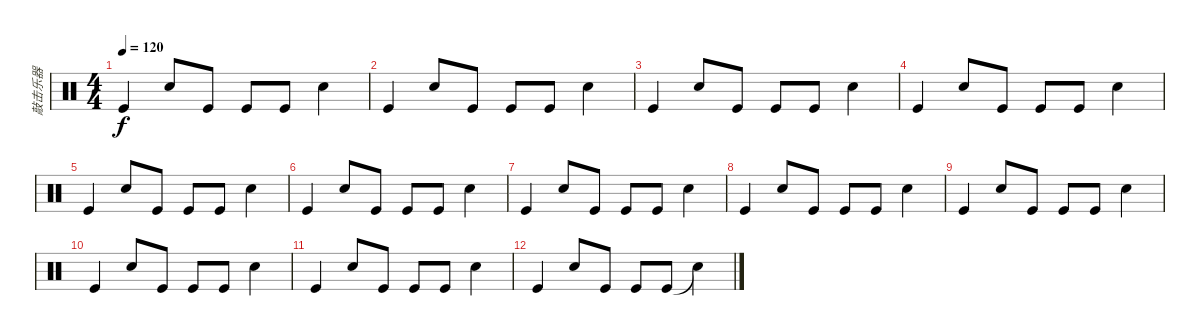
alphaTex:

\track ("敲击乐器" "敲击乐器") {instrument percussion}
\staff {score}
\articulation defaults
\ts (4 4)
\tempo 120
\clef neutral
\ks c "Kick (hit)".4{dy f} "Snare (hit) 2".8 "Kick (hit)".8 "Kick (hit)".8 "Kick (hit)".8 "Snare (hit) 2".4
|
"Kick (hit)".4 "Snare (hit) 2".8 "Kick (hit)".8 "Kick (hit)".8 "Kick (hit)".8 "Snare (hit) 2".4 |
"Kick (hit)".4 "Snare (hit) 2".8 "Kick (hit)".8 "Kick (hit)".8 "Kick (hit)".8 "Snare (hit) 2".4 |
"Kick (hit)".4 "Snare (hit) 2".8 "Kick (hit)".8 "Kick (hit)".8 "Kick (hit)".8 "Snare (hit) 2".4 |
"Kick (hit)".4 "Snare (hit) 2".8 "Kick (hit)".8 "Kick (hit)".8 "Kick (hit)".8 "Snare (hit) 2".4 |
"Kick (hit)".4 "Snare (hit) 2".8 "Kick (hit)".8 "Kick (hit)".8 "Kick (hit)".8 "Snare (hit) 2".4 |
"Kick (hit)".4 "Snare (hit) 2".8 "Kick (hit)".8 "Kick (hit)".8 "Kick (hit)".8 "Snare (hit) 2".4 |
"Kick (hit)".4 "Snare (hit) 2".8 "Kick (hit)".8 "Kick (hit)".8 "Kick (hit)".8 "Snare (hit) 2".4 |
"Kick (hit)".4 "Snare (hit) 2".8 "Kick (hit)".8 "Kick (hit)".8 "Kick (hit)".8 "Snare (hit) 2".4 |
"Kick (hit)".4 "Snare (hit) 2".8 "Kick (hit)".8 "Kick (hit)".8 "Kick (hit)".8 "Snare (hit) 2".4 |
"Kick (hit)".4 "Snare (hit) 2".8 "Kick (hit)".8 "Kick (hit)".8 "Kick (hit)".8 "Snare (hit) 2".4 |
"Kick (hit)".4 "Snare (hit) 2".8 "Kick (hit)".8 "Kick (hit)".8 "Kick (hit)".8 "Snare (hit)"{t}.4
